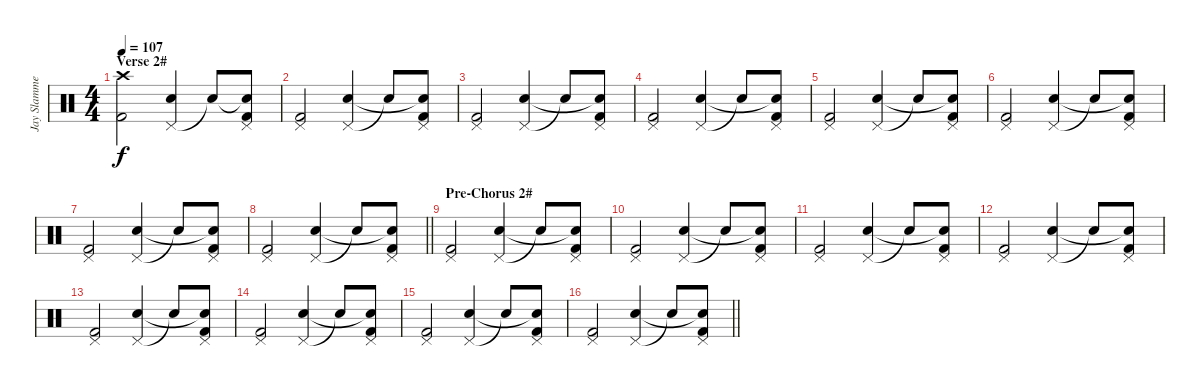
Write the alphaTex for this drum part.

\track ("Jay Slammer" "Jay Slamme") {instrument percussion}
\staff {score}
\articulation defaults
\ts (4 4)
\section ("" "Verse 2#")
\tempo 107
\clef neutral
\ks c
("Crash high (hit)" "Kick (hit) 2").2{dy f} ("Pedal Hi-Hat (hit)" "Electric Snare (hit)").4 "Snare (hit)"{t}.8 ("Snare (hit)"{t} "Pedal Hi-Hat (hit)" "Kick (hit) 2").8 |
("Pedal Hi-Hat (hit)" "Kick (hit) 2").2 ("Pedal Hi-Hat (hit)" "Electric Snare (hit)").4 "Snare (hit)"{t}.8 ("Pedal Hi-Hat (hit)" "Snare (hit)"{t} "Kick (hit) 2").8 |
("Pedal Hi-Hat (hit)" "Kick (hit) 2").2 ("Pedal Hi-Hat (hit)" "Electric Snare (hit)").4 "Snare (hit)"{t}.8 ("Pedal Hi-Hat (hit)" "Snare (hit)"{t} "Kick (hit) 2").8 |
("Pedal Hi-Hat (hit)" "Kick (hit) 2").2 ("Pedal Hi-Hat (hit)" "Electric Snare (hit)").4 "Snare (hit)"{t}.8 ("Pedal Hi-Hat (hit)" "Snare (hit)"{t} "Kick (hit) 2").8 |
("Pedal Hi-Hat (hit)" "Kick (hit) 2").2 ("Pedal Hi-Hat (hit)" "Electric Snare (hit)").4 "Snare (hit)"{t}.8 ("Pedal Hi-Hat (hit)" "Snare (hit)"{t} "Kick (hit) 2").8 |
("Pedal Hi-Hat (hit)" "Kick (hit) 2").2 ("Pedal Hi-Hat (hit)" "Electric Snare (hit)").4 "Snare (hit)"{t}.8 ("Pedal Hi-Hat (hit)" "Snare (hit)"{t} "Kick (hit) 2").8 |
("Pedal Hi-Hat (hit)" "Kick (hit) 2").2 ("Pedal Hi-Hat (hit)" "Electric Snare (hit)").4 "Snare (hit)"{t}.8 ("Pedal Hi-Hat (hit)" "Snare (hit)"{t} "Kick (hit) 2").8 |
\barLineRight lightlight
("Pedal Hi-Hat (hit)" "Kick (hit) 2").2 ("Pedal Hi-Hat (hit)" "Electric Snare (hit)").4 "Snare (hit)"{t}.8 ("Pedal Hi-Hat (hit)" "Snare (hit)"{t} "Kick (hit) 2").8 |
\section ("" "Pre-Chorus 2#")
("Pedal Hi-Hat (hit)" "Kick (hit) 2").2 ("Pedal Hi-Hat (hit)" "Electric Snare (hit)").4 "Snare (hit)"{t}.8 ("Pedal Hi-Hat (hit)" "Snare (hit)"{t} "Kick (hit) 2").8 |
("Pedal Hi-Hat (hit)" "Kick (hit) 2").2 ("Pedal Hi-Hat (hit)" "Electric Snare (hit)").4 "Snare (hit)"{t}.8 ("Pedal Hi-Hat (hit)" "Snare (hit)"{t} "Kick (hit) 2").8 |
("Pedal Hi-Hat (hit)" "Kick (hit) 2").2 ("Pedal Hi-Hat (hit)" "Electric Snare (hit)").4 "Snare (hit)"{t}.8 ("Pedal Hi-Hat (hit)" "Snare (hit)"{t} "Kick (hit) 2").8 |
("Pedal Hi-Hat (hit)" "Kick (hit) 2").2 ("Pedal Hi-Hat (hit)" "Electric Snare (hit)").4 "Snare (hit)"{t}.8 ("Pedal Hi-Hat (hit)" "Snare (hit)"{t} "Kick (hit) 2").8 |
("Pedal Hi-Hat (hit)" "Kick (hit) 2").2 ("Pedal Hi-Hat (hit)" "Electric Snare (hit)").4 "Snare (hit)"{t}.8 ("Pedal Hi-Hat (hit)" "Snare (hit)"{t} "Kick (hit) 2").8 |
("Pedal Hi-Hat (hit)" "Kick (hit) 2").2 ("Pedal Hi-Hat (hit)" "Electric Snare (hit)").4 "Snare (hit)"{t}.8 ("Pedal Hi-Hat (hit)" "Snare (hit)"{t} "Kick (hit) 2").8 |
("Pedal Hi-Hat (hit)" "Kick (hit) 2").2 ("Pedal Hi-Hat (hit)" "Electric Snare (hit)").4 "Snare (hit)"{t}.8 ("Pedal Hi-Hat (hit)" "Snare (hit)"{t} "Kick (hit) 2").8 |
\barLineRight lightlight
("Pedal Hi-Hat (hit)" "Kick (hit) 2").2 ("Pedal Hi-Hat (hit)" "Electric Snare (hit)").4 "Snare (hit)"{t}.8 ("Pedal Hi-Hat (hit)" "Snare (hit)"{t} "Kick (hit) 2").8
